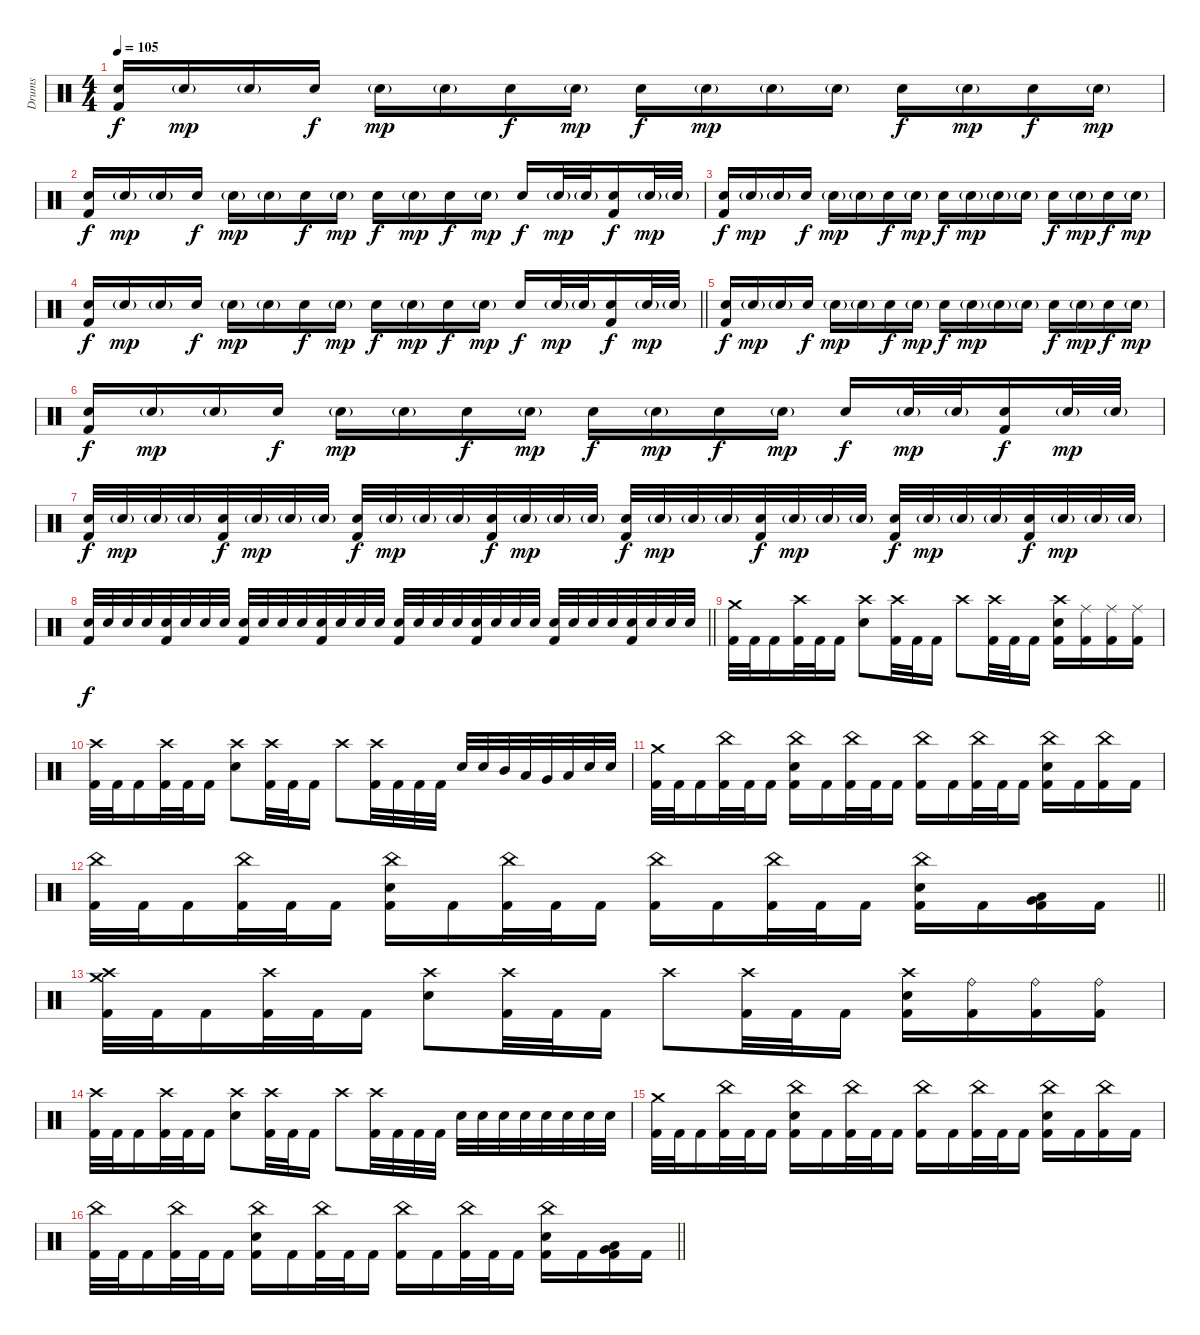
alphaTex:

\track ("Drums" "Drums") {instrument percussion}
\staff {score}
\articulation defaults
\ts (4 4)
\section ("" "")
\tempo 105
\clef neutral
\ks c
("Electric Snare (hit)" "Kick (hit) 2").16{dy f} "Electric Snare (hit)"{g}.16{dy mp} "Electric Snare (hit)"{g}.16 "Electric Snare (hit)".16{dy f} "Electric Snare (hit)"{g}.16{dy mp} "Electric Snare (hit)"{g}.16 "Electric Snare (hit)".16{dy f} "Electric Snare (hit)"{g}.16{dy mp} "Electric Snare (hit)".16{dy f} "Electric Snare (hit)"{g}.16{dy mp} "Electric Snare (hit)"{g}.16 "Electric Snare (hit)"{g}.16 "Electric Snare (hit)".16{dy f} "Electric Snare (hit)"{g}.16{dy mp} "Electric Snare (hit)".16{dy f} "Electric Snare (hit)"{g}.16{dy mp} |
("Electric Snare (hit)" "Kick (hit) 2").16{dy f} "Electric Snare (hit)"{g}.16{dy mp} "Electric Snare (hit)"{g}.16 "Electric Snare (hit)".16{dy f} "Electric Snare (hit)"{g}.16{dy mp} "Electric Snare (hit)"{g}.16 "Electric Snare (hit)".16{dy f} "Electric Snare (hit)"{g}.16{dy mp} "Electric Snare (hit)".16{dy f} "Electric Snare (hit)"{g}.16{dy mp} "Electric Snare (hit)".16{dy f} "Electric Snare (hit)"{g}.16{dy mp} "Electric Snare (hit)".16{dy f} "Electric Snare (hit)"{g}.32{dy mp} "Electric Snare (hit)"{g}.32 ("Electric Snare (hit)" "Kick (hit) 2").16{dy f} "Electric Snare (hit)"{g}.32{dy mp} "Electric Snare (hit)"{g}.32 |
("Electric Snare (hit)" "Kick (hit) 2").16{dy f} "Electric Snare (hit)"{g}.16{dy mp} "Electric Snare (hit)"{g}.16 "Electric Snare (hit)".16{dy f} "Electric Snare (hit)"{g}.16{dy mp} "Electric Snare (hit)"{g}.16 "Electric Snare (hit)".16{dy f} "Electric Snare (hit)"{g}.16{dy mp} "Electric Snare (hit)".16{dy f} "Electric Snare (hit)"{g}.16{dy mp} "Electric Snare (hit)"{g}.16 "Electric Snare (hit)"{g}.16 "Electric Snare (hit)".16{dy f} "Electric Snare (hit)"{g}.16{dy mp} "Electric Snare (hit)".16{dy f} "Electric Snare (hit)"{g}.16{dy mp} |
\barLineRight lightlight
("Electric Snare (hit)" "Kick (hit) 2").16{dy f} "Electric Snare (hit)"{g}.16{dy mp} "Electric Snare (hit)"{g}.16 "Electric Snare (hit)".16{dy f} "Electric Snare (hit)"{g}.16{dy mp} "Electric Snare (hit)"{g}.16 "Electric Snare (hit)".16{dy f} "Electric Snare (hit)"{g}.16{dy mp} "Electric Snare (hit)".16{dy f} "Electric Snare (hit)"{g}.16{dy mp} "Electric Snare (hit)".16{dy f} "Electric Snare (hit)"{g}.16{dy mp} "Electric Snare (hit)".16{dy f} "Electric Snare (hit)"{g}.32{dy mp} "Electric Snare (hit)"{g}.32 ("Electric Snare (hit)" "Kick (hit) 2").16{dy f} "Electric Snare (hit)"{g}.32{dy mp} "Electric Snare (hit)"{g}.32 |
\section ("" "")
("Electric Snare (hit)" "Kick (hit) 2").16{dy f} "Electric Snare (hit)"{g}.16{dy mp} "Electric Snare (hit)"{g}.16 "Electric Snare (hit)".16{dy f} "Electric Snare (hit)"{g}.16{dy mp} "Electric Snare (hit)"{g}.16 "Electric Snare (hit)".16{dy f} "Electric Snare (hit)"{g}.16{dy mp} "Electric Snare (hit)".16{dy f} "Electric Snare (hit)"{g}.16{dy mp} "Electric Snare (hit)"{g}.16 "Electric Snare (hit)"{g}.16 "Electric Snare (hit)".16{dy f} "Electric Snare (hit)"{g}.16{dy mp} "Electric Snare (hit)".16{dy f} "Electric Snare (hit)"{g}.16{dy mp} |
("Electric Snare (hit)" "Kick (hit) 2").16{dy f} "Electric Snare (hit)"{g}.16{dy mp} "Electric Snare (hit)"{g}.16 "Electric Snare (hit)".16{dy f} "Electric Snare (hit)"{g}.16{dy mp} "Electric Snare (hit)"{g}.16 "Electric Snare (hit)".16{dy f} "Electric Snare (hit)"{g}.16{dy mp} "Electric Snare (hit)".16{dy f} "Electric Snare (hit)"{g}.16{dy mp} "Electric Snare (hit)".16{dy f} "Electric Snare (hit)"{g}.16{dy mp} "Electric Snare (hit)".16{dy f} "Electric Snare (hit)"{g}.32{dy mp} "Electric Snare (hit)"{g}.32 ("Electric Snare (hit)" "Kick (hit) 2").16{dy f} "Electric Snare (hit)"{g}.32{dy mp} "Electric Snare (hit)"{g}.32 |
("Electric Snare (hit)" "Kick (hit) 2").32{dy f} "Electric Snare (hit)"{g}.32{dy mp} "Electric Snare (hit)"{g}.32 "Electric Snare (hit)"{g}.32 ("Electric Snare (hit)" "Kick (hit) 2").32{dy f} "Electric Snare (hit)"{g}.32{dy mp} "Electric Snare (hit)"{g}.32 "Electric Snare (hit)"{g}.32 ("Electric Snare (hit)" "Kick (hit) 2").32{dy f} "Electric Snare (hit)"{g}.32{dy mp} "Electric Snare (hit)"{g}.32 "Electric Snare (hit)"{g}.32 ("Electric Snare (hit)" "Kick (hit) 2").32{dy f} "Electric Snare (hit)"{g}.32{dy mp} "Electric Snare (hit)"{g}.32 "Electric Snare (hit)"{g}.32 ("Electric Snare (hit)" "Kick (hit) 2").32{dy f} "Electric Snare (hit)"{g}.32{dy mp} "Electric Snare (hit)"{g}.32 "Electric Snare (hit)"{g}.32 ("Electric Snare (hit)" "Kick (hit) 2").32{dy f} "Electric Snare (hit)"{g}.32{dy mp} "Electric Snare (hit)"{g}.32 "Electric Snare (hit)"{g}.32 ("Electric Snare (hit)" "Kick (hit) 2").32{dy f} "Electric Snare (hit)"{g}.32{dy mp} "Electric Snare (hit)"{g}.32 "Electric Snare (hit)"{g}.32 ("Electric Snare (hit)" "Kick (hit) 2").32{dy f} "Electric Snare (hit)"{g}.32{dy mp} "Electric Snare (hit)"{g}.32 "Electric Snare (hit)"{g}.32 |
\barLineRight lightlight
("Electric Snare (hit)" "Kick (hit) 2").32{dy f} "Electric Snare (hit)".32 "Electric Snare (hit)".32 "Electric Snare (hit)".32 ("Electric Snare (hit)" "Kick (hit) 2").32 "Electric Snare (hit)".32 "Electric Snare (hit)".32 "Electric Snare (hit)".32 ("Electric Snare (hit)" "Kick (hit) 2").32 "Electric Snare (hit)".32 "Electric Snare (hit)".32 "Electric Snare (hit)".32 ("Electric Snare (hit)" "Kick (hit) 2").32 "Electric Snare (hit)".32 "Electric Snare (hit)".32 "Electric Snare (hit)".32 ("Electric Snare (hit)" "Kick (hit) 2").32 "Electric Snare (hit)".32 "Electric Snare (hit)".32 "Electric Snare (hit)".32 ("Electric Snare (hit)" "Kick (hit) 2").32 "Electric Snare (hit)".32 "Electric Snare (hit)".32 "Electric Snare (hit)".32 ("Electric Snare (hit)" "Kick (hit) 2").32 "Electric Snare (hit)".32 "Electric Snare (hit)".32 "Electric Snare (hit)".32 ("Electric Snare (hit)" "Kick (hit) 2").32 "Electric Snare (hit)".32 "Electric Snare (hit)".32 "Electric Snare (hit)".32 |
\section ("" "")
("Crash medium (hit)" "Kick (hit) 2").32 "Kick (hit) 2".32 "Kick (hit) 2".16 ("Crash high (hit)" "Kick (hit) 2").32 "Kick (hit) 2".32 "Kick (hit) 2".16 ("Crash high (hit)" "Electric Snare (hit)").8 ("Crash high (hit)" "Kick (hit) 2").32 "Kick (hit) 2".32 "Kick (hit) 2".16 "Crash high (hit)".8 ("Crash high (hit)" "Kick (hit) 2").32 "Kick (hit) 2".32 "Kick (hit) 2".16 ("Crash high (hit)" "Electric Snare (hit)" "Kick (hit) 2").16 ("Ride (middle)" "Kick (hit) 2").16 ("Ride (middle)" "Kick (hit) 2").16 ("Ride (middle)" "Kick (hit) 2").16 |
("Crash high (hit)" "Kick (hit) 2").32 "Kick (hit) 2".32 "Kick (hit) 2".16 ("Crash high (hit)" "Kick (hit) 2").32 "Kick (hit) 2".32 "Kick (hit) 2".16 ("Crash high (hit)" "Electric Snare (hit)").8 ("Crash high (hit)" "Kick (hit) 2").32 "Kick (hit) 2".32 "Kick (hit) 2".16 "Crash high (hit)".8 ("Crash high (hit)" "Kick (hit) 2").32 "Kick (hit) 2".32 "Kick (hit) 2".32 "Kick (hit) 2".32 "Electric Snare (hit)".32 "Electric Snare (hit)".32 "Mid Tom (hit)".32 "Low Tom (hit)".32 "Very Low Tom (hit)".32 "Low Floor Tom (hit)".32 "Electric Snare (hit)".32 "Electric Snare (hit)".32 |
("Crash medium (hit)" "Kick (hit) 2").32 "Kick (hit) 2".32 "Kick (hit) 2".16 ("China (hit)" "Kick (hit) 2").32 "Kick (hit) 2".32 "Kick (hit) 2".16 ("China (hit)" "Electric Snare (hit)" "Kick (hit) 2").16 "Kick (hit) 2".16 ("China (hit)" "Kick (hit) 2").32 "Kick (hit) 2".32 "Kick (hit) 2".16 ("China (hit)" "Kick (hit) 2").16 "Kick (hit) 2".16 ("China (hit)" "Kick (hit) 2").32 "Kick (hit) 2".32 "Kick (hit) 2".16 ("China (hit)" "Electric Snare (hit)" "Kick (hit) 2").16 "Kick (hit) 2".16 ("China (hit)" "Kick (hit) 2").16 "Kick (hit) 2".16 |
\barLineRight lightlight
("China (hit)" "Kick (hit) 2").32 "Kick (hit) 2".32 "Kick (hit) 2".16 ("China (hit)" "Kick (hit) 2").32 "Kick (hit) 2".32 "Kick (hit) 2".16 ("China (hit)" "Electric Snare (hit)" "Kick (hit) 2").16 "Kick (hit) 2".16 ("China (hit)" "Kick (hit) 2").32 "Kick (hit) 2".32 "Kick (hit) 2".16 ("China (hit)" "Kick (hit) 2").16 "Kick (hit) 2".16 ("China (hit)" "Kick (hit) 2").32 "Kick (hit) 2".32 "Kick (hit) 2".16 ("China (hit)" "Electric Snare (hit)" "Kick (hit) 2").16 "Kick (hit) 2".16 ("Very Low Tom (hit)" "Low Floor Tom (hit)" "Kick (hit) 2").16 "Kick (hit) 2".16 |
\section ("" "")
("Crash high (hit)" "Crash medium (hit)" "Kick (hit) 2").32 "Kick (hit) 2".32 "Kick (hit) 2".16 ("Crash high (hit)" "Kick (hit) 2").32 "Kick (hit) 2".32 "Kick (hit) 2".16 ("Crash high (hit)" "Electric Snare (hit)").8 ("Crash high (hit)" "Kick (hit) 2").32 "Kick (hit) 2".32 "Kick (hit) 2".16 "Crash high (hit)".8 ("Crash high (hit)" "Kick (hit) 2").32 "Kick (hit) 2".32 "Kick (hit) 2".16 ("Crash high (hit)" "Electric Snare (hit)" "Kick (hit) 2").16 ("Ride (bell)" "Kick (hit) 2").16 ("Ride (bell)" "Kick (hit) 2").16 ("Ride (bell)" "Kick (hit) 2").16 |
("Crash high (hit)" "Kick (hit) 2").32 "Kick (hit) 2".32 "Kick (hit) 2".16 ("Crash high (hit)" "Kick (hit) 2").32 "Kick (hit) 2".32 "Kick (hit) 2".16 ("Crash high (hit)" "Electric Snare (hit)").8 ("Crash high (hit)" "Kick (hit) 2").32 "Kick (hit) 2".32 "Kick (hit) 2".16 "Crash high (hit)".8 ("Crash high (hit)" "Kick (hit) 2").32 "Kick (hit) 2".32 "Kick (hit) 2".32 "Kick (hit) 2".32 "Electric Snare (hit)".32 "Electric Snare (hit)".32 "Electric Snare (hit)".32 "Electric Snare (hit)".32 "Electric Snare (hit)".32 "Electric Snare (hit)".32 "Electric Snare (hit)".32 "Electric Snare (hit)".32 |
("Crash medium (hit)" "Kick (hit) 2").32 "Kick (hit) 2".32 "Kick (hit) 2".16 ("China (hit)" "Kick (hit) 2").32 "Kick (hit) 2".32 "Kick (hit) 2".16 ("China (hit)" "Electric Snare (hit)" "Kick (hit) 2").16 "Kick (hit) 2".16 ("China (hit)" "Kick (hit) 2").32 "Kick (hit) 2".32 "Kick (hit) 2".16 ("China (hit)" "Kick (hit) 2").16 "Kick (hit) 2".16 ("China (hit)" "Kick (hit) 2").32 "Kick (hit) 2".32 "Kick (hit) 2".16 ("China (hit)" "Electric Snare (hit)" "Kick (hit) 2").16 "Kick (hit) 2".16 ("China (hit)" "Kick (hit) 2").16 "Kick (hit) 2".16 |
\barLineRight lightlight
("China (hit)" "Kick (hit) 2").32 "Kick (hit) 2".32 "Kick (hit) 2".16 ("China (hit)" "Kick (hit) 2").32 "Kick (hit) 2".32 "Kick (hit) 2".16 ("China (hit)" "Electric Snare (hit)" "Kick (hit) 2").16 "Kick (hit) 2".16 ("China (hit)" "Kick (hit) 2").32 "Kick (hit) 2".32 "Kick (hit) 2".16 ("China (hit)" "Kick (hit) 2").16 "Kick (hit) 2".16 ("China (hit)" "Kick (hit) 2").32 "Kick (hit) 2".32 "Kick (hit) 2".16 ("China (hit)" "Electric Snare (hit)" "Kick (hit) 2").16 "Kick (hit) 2".16 ("Very Low Tom (hit)" "Low Floor Tom (hit)" "Kick (hit) 2").16 "Kick (hit) 2".16
